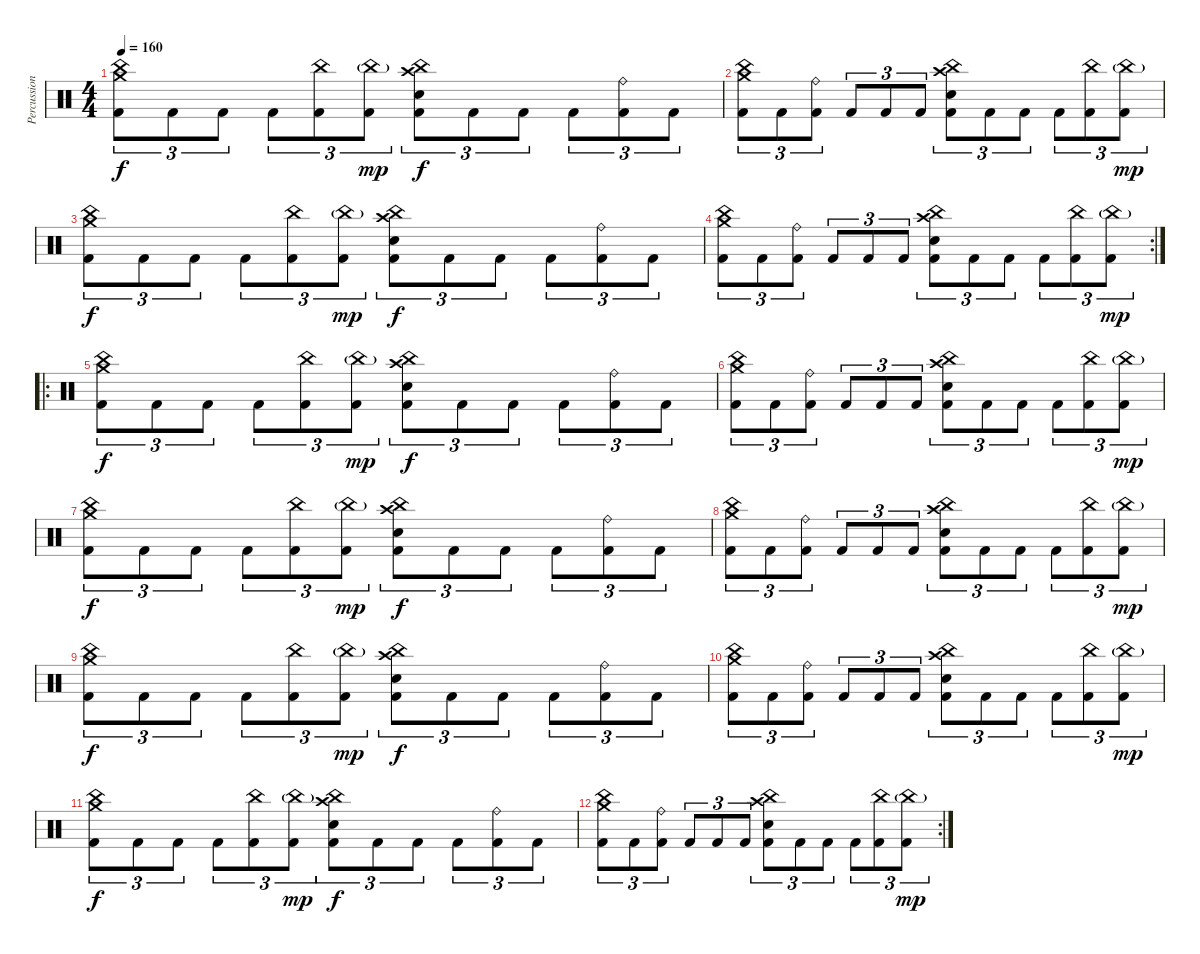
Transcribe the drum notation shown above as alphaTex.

\track ("Percussion" "Percussion") {instrument percussion}
\staff {score}
\articulation defaults
\ts (4 4)
\tempo 160
\clef neutral
\ks c
("Kick (hit) 2" "China (hit)" "Crash medium (hit)").8{tu (3 2) dy f} "Kick (hit) 2".8{tu (3 2)} "Kick (hit) 2".8{tu (3 2)} "Kick (hit) 2".8{tu (3 2)} ("Kick (hit) 2" "China (hit)").8{tu (3 2)} ("Kick (hit) 2" "China (hit)"{g}).8{tu (3 2) dy mp} ("Kick (hit) 2" "China (hit)" "Electric Snare (hit)" "Crash high (hit)").8{tu (3 2) dy f} "Kick (hit) 2".8{tu (3 2)} "Kick (hit) 2".8{tu (3 2)} "Kick (hit) 2".8{tu (3 2)} ("Kick (hit) 2" "Ride (bell)").8{tu (3 2)} "Kick (hit) 2".8{tu (3 2)} |
("Kick (hit) 2" "China (hit)" "Crash medium (hit)").8{tu (3 2)} "Kick (hit) 2".8{tu (3 2)} ("Kick (hit) 2" "Ride (bell)").8{tu (3 2)} "Kick (hit) 2".8{tu (3 2)} "Kick (hit) 2".8{tu (3 2)} "Kick (hit) 2".8{tu (3 2)} ("Kick (hit) 2" "Crash high (hit)" "China (hit)" "Electric Snare (hit)").8{tu (3 2)} "Kick (hit) 2".8{tu (3 2)} "Kick (hit) 2".8{tu (3 2)} "Kick (hit) 2".8{tu (3 2)} ("Kick (hit) 2" "China (hit)").8{tu (3 2)} ("Kick (hit) 2" "China (hit)"{g}).8{tu (3 2) dy mp} |
("Kick (hit) 2" "China (hit)" "Crash medium (hit)").8{tu (3 2) dy f} "Kick (hit) 2".8{tu (3 2)} "Kick (hit) 2".8{tu (3 2)} "Kick (hit) 2".8{tu (3 2)} ("Kick (hit) 2" "China (hit)").8{tu (3 2)} ("Kick (hit) 2" "China (hit)"{g}).8{tu (3 2) dy mp} ("Kick (hit) 2" "China (hit)" "Electric Snare (hit)" "Crash high (hit)").8{tu (3 2) dy f} "Kick (hit) 2".8{tu (3 2)} "Kick (hit) 2".8{tu (3 2)} "Kick (hit) 2".8{tu (3 2)} ("Kick (hit) 2" "Ride (bell)").8{tu (3 2)} "Kick (hit) 2".8{tu (3 2)} |
\rc 2
("Kick (hit) 2" "China (hit)" "Crash medium (hit)").8{tu (3 2)} "Kick (hit) 2".8{tu (3 2)} ("Kick (hit) 2" "Ride (bell)").8{tu (3 2)} "Kick (hit) 2".8{tu (3 2)} "Kick (hit) 2".8{tu (3 2)} "Kick (hit) 2".8{tu (3 2)} ("Kick (hit) 2" "Crash high (hit)" "China (hit)" "Electric Snare (hit)").8{tu (3 2)} "Kick (hit) 2".8{tu (3 2)} "Kick (hit) 2".8{tu (3 2)} "Kick (hit) 2".8{tu (3 2)} ("Kick (hit) 2" "China (hit)").8{tu (3 2)} ("Kick (hit) 2" "China (hit)"{g}).8{tu (3 2) dy mp} |
\ro
("Kick (hit) 2" "China (hit)" "Crash medium (hit)").8{tu (3 2) dy f} "Kick (hit) 2".8{tu (3 2)} "Kick (hit) 2".8{tu (3 2)} "Kick (hit) 2".8{tu (3 2)} ("Kick (hit) 2" "China (hit)").8{tu (3 2)} ("Kick (hit) 2" "China (hit)"{g}).8{tu (3 2) dy mp} ("Kick (hit) 2" "China (hit)" "Electric Snare (hit)" "Crash high (hit)").8{tu (3 2) dy f} "Kick (hit) 2".8{tu (3 2)} "Kick (hit) 2".8{tu (3 2)} "Kick (hit) 2".8{tu (3 2)} ("Kick (hit) 2" "Ride (bell)").8{tu (3 2)} "Kick (hit) 2".8{tu (3 2)} |
("Kick (hit) 2" "China (hit)" "Crash medium (hit)").8{tu (3 2)} "Kick (hit) 2".8{tu (3 2)} ("Kick (hit) 2" "Ride (bell)").8{tu (3 2)} "Kick (hit) 2".8{tu (3 2)} "Kick (hit) 2".8{tu (3 2)} "Kick (hit) 2".8{tu (3 2)} ("Kick (hit) 2" "Crash high (hit)" "China (hit)" "Electric Snare (hit)").8{tu (3 2)} "Kick (hit) 2".8{tu (3 2)} "Kick (hit) 2".8{tu (3 2)} "Kick (hit) 2".8{tu (3 2)} ("Kick (hit) 2" "China (hit)").8{tu (3 2)} ("Kick (hit) 2" "China (hit)"{g}).8{tu (3 2) dy mp} |
("Kick (hit) 2" "China (hit)" "Crash medium (hit)").8{tu (3 2) dy f} "Kick (hit) 2".8{tu (3 2)} "Kick (hit) 2".8{tu (3 2)} "Kick (hit) 2".8{tu (3 2)} ("Kick (hit) 2" "China (hit)").8{tu (3 2)} ("Kick (hit) 2" "China (hit)"{g}).8{tu (3 2) dy mp} ("Kick (hit) 2" "China (hit)" "Electric Snare (hit)" "Crash high (hit)").8{tu (3 2) dy f} "Kick (hit) 2".8{tu (3 2)} "Kick (hit) 2".8{tu (3 2)} "Kick (hit) 2".8{tu (3 2)} ("Kick (hit) 2" "Ride (bell)").8{tu (3 2)} "Kick (hit) 2".8{tu (3 2)} |
("Kick (hit) 2" "China (hit)" "Crash medium (hit)").8{tu (3 2)} "Kick (hit) 2".8{tu (3 2)} ("Kick (hit) 2" "Ride (bell)").8{tu (3 2)} "Kick (hit) 2".8{tu (3 2)} "Kick (hit) 2".8{tu (3 2)} "Kick (hit) 2".8{tu (3 2)} ("Kick (hit) 2" "Crash high (hit)" "China (hit)" "Electric Snare (hit)").8{tu (3 2)} "Kick (hit) 2".8{tu (3 2)} "Kick (hit) 2".8{tu (3 2)} "Kick (hit) 2".8{tu (3 2)} ("Kick (hit) 2" "China (hit)").8{tu (3 2)} ("Kick (hit) 2" "China (hit)"{g}).8{tu (3 2) dy mp} |
("Kick (hit) 2" "China (hit)" "Crash medium (hit)").8{tu (3 2) dy f} "Kick (hit) 2".8{tu (3 2)} "Kick (hit) 2".8{tu (3 2)} "Kick (hit) 2".8{tu (3 2)} ("Kick (hit) 2" "China (hit)").8{tu (3 2)} ("Kick (hit) 2" "China (hit)"{g}).8{tu (3 2) dy mp} ("Kick (hit) 2" "China (hit)" "Electric Snare (hit)" "Crash high (hit)").8{tu (3 2) dy f} "Kick (hit) 2".8{tu (3 2)} "Kick (hit) 2".8{tu (3 2)} "Kick (hit) 2".8{tu (3 2)} ("Kick (hit) 2" "Ride (bell)").8{tu (3 2)} "Kick (hit) 2".8{tu (3 2)} |
("Kick (hit) 2" "China (hit)" "Crash medium (hit)").8{tu (3 2)} "Kick (hit) 2".8{tu (3 2)} ("Kick (hit) 2" "Ride (bell)").8{tu (3 2)} "Kick (hit) 2".8{tu (3 2)} "Kick (hit) 2".8{tu (3 2)} "Kick (hit) 2".8{tu (3 2)} ("Kick (hit) 2" "Crash high (hit)" "China (hit)" "Electric Snare (hit)").8{tu (3 2)} "Kick (hit) 2".8{tu (3 2)} "Kick (hit) 2".8{tu (3 2)} "Kick (hit) 2".8{tu (3 2)} ("Kick (hit) 2" "China (hit)").8{tu (3 2)} ("Kick (hit) 2" "China (hit)"{g}).8{tu (3 2) dy mp} |
("Kick (hit) 2" "China (hit)" "Crash medium (hit)").8{tu (3 2) dy f} "Kick (hit) 2".8{tu (3 2)} "Kick (hit) 2".8{tu (3 2)} "Kick (hit) 2".8{tu (3 2)} ("Kick (hit) 2" "China (hit)").8{tu (3 2)} ("Kick (hit) 2" "China (hit)"{g}).8{tu (3 2) dy mp} ("Kick (hit) 2" "China (hit)" "Electric Snare (hit)" "Crash high (hit)").8{tu (3 2) dy f} "Kick (hit) 2".8{tu (3 2)} "Kick (hit) 2".8{tu (3 2)} "Kick (hit) 2".8{tu (3 2)} ("Kick (hit) 2" "Ride (bell)").8{tu (3 2)} "Kick (hit) 2".8{tu (3 2)} |
\rc 2
("Kick (hit) 2" "China (hit)" "Crash medium (hit)").8{tu (3 2)} "Kick (hit) 2".8{tu (3 2)} ("Kick (hit) 2" "Ride (bell)").8{tu (3 2)} "Kick (hit) 2".8{tu (3 2)} "Kick (hit) 2".8{tu (3 2)} "Kick (hit) 2".8{tu (3 2)} ("Kick (hit) 2" "Crash high (hit)" "China (hit)" "Electric Snare (hit)").8{tu (3 2)} "Kick (hit) 2".8{tu (3 2)} "Kick (hit) 2".8{tu (3 2)} "Kick (hit) 2".8{tu (3 2)} ("Kick (hit) 2" "China (hit)").8{tu (3 2)} ("Kick (hit) 2" "China (hit)"{g}).8{tu (3 2) dy mp}
